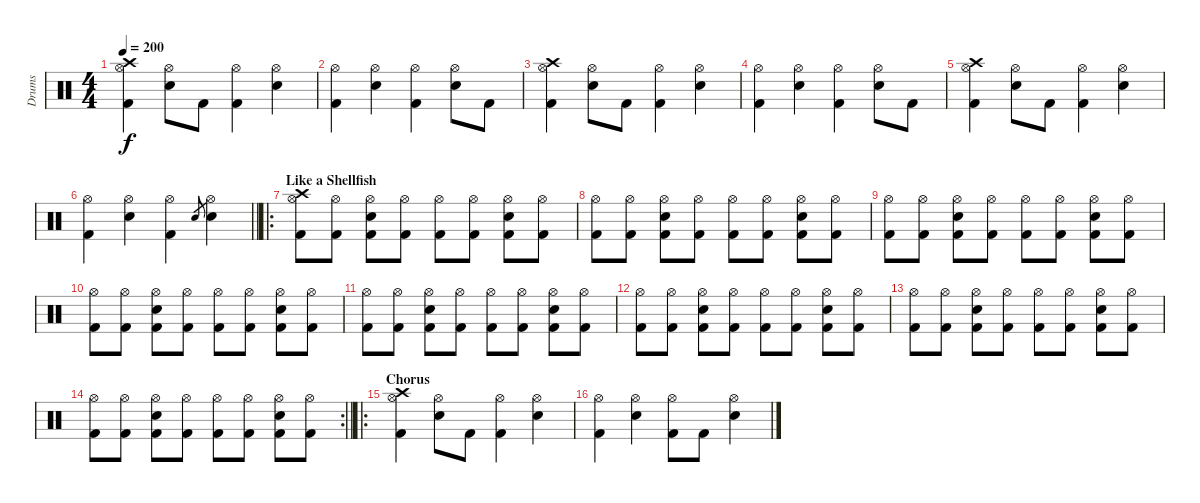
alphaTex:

\track ("Drums" "Drums") {instrument percussion}
\staff {score}
\articulation defaults
\ts (4 4)
\tempo 200
\clef neutral
\ks c
("Crash high (hit)" "Hi-Hat (open)" "Kick (hit) 2").4{dy f} ("Hi-Hat (open)" "Snare (hit) 2").8 "Kick (hit) 2".8 ("Hi-Hat (open)" "Kick (hit) 2").4 ("Hi-Hat (open)" "Snare (hit) 2").4 |
("Hi-Hat (open)" "Kick (hit) 2").4 ("Hi-Hat (open)" "Snare (hit) 2").4 ("Hi-Hat (open)" "Kick (hit) 2").4 ("Hi-Hat (open)" "Snare (hit) 2").8 "Kick (hit) 2".8 |
("Crash high (hit)" "Hi-Hat (open)" "Kick (hit) 2").4 ("Hi-Hat (open)" "Snare (hit) 2").8 "Kick (hit) 2".8 ("Hi-Hat (open)" "Kick (hit) 2").4 ("Hi-Hat (open)" "Snare (hit) 2").4 |
("Hi-Hat (open)" "Kick (hit) 2").4 ("Hi-Hat (open)" "Snare (hit) 2").4 ("Hi-Hat (open)" "Kick (hit) 2").4 ("Hi-Hat (open)" "Snare (hit) 2").8 "Kick (hit) 2".8 |
("Crash high (hit)" "Hi-Hat (open)" "Kick (hit) 2").4 ("Hi-Hat (open)" "Snare (hit) 2").8 "Kick (hit) 2".8 ("Hi-Hat (open)" "Kick (hit) 2").4 ("Hi-Hat (open)" "Snare (hit) 2").4 |
\barLineRight lightlight
("Hi-Hat (open)" "Kick (hit) 2").4 ("Hi-Hat (open)" "Snare (hit) 2").4 ("Hi-Hat (open)" "Kick (hit) 2").4 "Snare (hit) 2".8{gr} ("Hi-Hat (open)" "Snare (hit) 2").4 |
\ro
\section ("" "Like a Shellfish")
("Crash high (hit)" "Hi-Hat (open)" "Kick (hit) 2").8 ("Hi-Hat (open)" "Kick (hit) 2").8 ("Hi-Hat (open)" "Snare (hit) 2" "Kick (hit) 2").8 ("Hi-Hat (open)" "Kick (hit) 2").8 ("Hi-Hat (open)" "Kick (hit) 2").8 ("Hi-Hat (open)" "Kick (hit) 2").8 ("Hi-Hat (open)" "Snare (hit) 2" "Kick (hit) 2").8 ("Hi-Hat (open)" "Kick (hit) 2").8 |
("Hi-Hat (open)" "Kick (hit) 2").8 ("Hi-Hat (open)" "Kick (hit) 2").8 ("Hi-Hat (open)" "Snare (hit) 2" "Kick (hit) 2").8 ("Hi-Hat (open)" "Kick (hit) 2").8 ("Hi-Hat (open)" "Kick (hit) 2").8 ("Hi-Hat (open)" "Kick (hit) 2").8 ("Hi-Hat (open)" "Snare (hit) 2" "Kick (hit) 2").8 ("Hi-Hat (open)" "Kick (hit) 2").8 |
("Hi-Hat (open)" "Kick (hit) 2").8 ("Hi-Hat (open)" "Kick (hit) 2").8 ("Hi-Hat (open)" "Snare (hit) 2" "Kick (hit) 2").8 ("Hi-Hat (open)" "Kick (hit) 2").8 ("Hi-Hat (open)" "Kick (hit) 2").8 ("Hi-Hat (open)" "Kick (hit) 2").8 ("Hi-Hat (open)" "Snare (hit) 2" "Kick (hit) 2").8 ("Hi-Hat (open)" "Kick (hit) 2").8 |
("Hi-Hat (open)" "Kick (hit) 2").8 ("Hi-Hat (open)" "Kick (hit) 2").8 ("Hi-Hat (open)" "Snare (hit) 2" "Kick (hit) 2").8 ("Hi-Hat (open)" "Kick (hit) 2").8 ("Hi-Hat (open)" "Kick (hit) 2").8 ("Hi-Hat (open)" "Kick (hit) 2").8 ("Hi-Hat (open)" "Snare (hit) 2" "Kick (hit) 2").8 ("Hi-Hat (open)" "Kick (hit) 2").8 |
("Hi-Hat (open)" "Kick (hit) 2").8 ("Hi-Hat (open)" "Kick (hit) 2").8 ("Hi-Hat (open)" "Snare (hit) 2" "Kick (hit) 2").8 ("Hi-Hat (open)" "Kick (hit) 2").8 ("Hi-Hat (open)" "Kick (hit) 2").8 ("Hi-Hat (open)" "Kick (hit) 2").8 ("Hi-Hat (open)" "Snare (hit) 2" "Kick (hit) 2").8 ("Hi-Hat (open)" "Kick (hit) 2").8 |
("Hi-Hat (open)" "Kick (hit) 2").8 ("Hi-Hat (open)" "Kick (hit) 2").8 ("Hi-Hat (open)" "Snare (hit) 2" "Kick (hit) 2").8 ("Hi-Hat (open)" "Kick (hit) 2").8 ("Hi-Hat (open)" "Kick (hit) 2").8 ("Hi-Hat (open)" "Kick (hit) 2").8 ("Hi-Hat (open)" "Snare (hit) 2" "Kick (hit) 2").8 ("Hi-Hat (open)" "Kick (hit) 2").8 |
("Hi-Hat (open)" "Kick (hit) 2").8 ("Hi-Hat (open)" "Kick (hit) 2").8 ("Hi-Hat (open)" "Snare (hit) 2" "Kick (hit) 2").8 ("Hi-Hat (open)" "Kick (hit) 2").8 ("Hi-Hat (open)" "Kick (hit) 2").8 ("Hi-Hat (open)" "Kick (hit) 2").8 ("Hi-Hat (open)" "Snare (hit) 2" "Kick (hit) 2").8 ("Hi-Hat (open)" "Kick (hit) 2").8 |
\rc 2
\barLineRight lightlight
("Hi-Hat (open)" "Kick (hit) 2").8 ("Hi-Hat (open)" "Kick (hit) 2").8 ("Hi-Hat (open)" "Snare (hit) 2" "Kick (hit) 2").8 ("Hi-Hat (open)" "Kick (hit) 2").8 ("Hi-Hat (open)" "Kick (hit) 2").8 ("Hi-Hat (open)" "Kick (hit) 2").8 ("Hi-Hat (open)" "Snare (hit) 2" "Kick (hit) 2").8 ("Hi-Hat (open)" "Kick (hit) 2").8 |
\ro
\section ("" "Chorus")
("Crash high (hit)" "Hi-Hat (open)" "Kick (hit) 2").4 ("Hi-Hat (open)" "Snare (hit) 2").8 "Kick (hit) 2".8 ("Hi-Hat (open)" "Kick (hit) 2").4 ("Hi-Hat (open)" "Snare (hit) 2").4 |
("Hi-Hat (open)" "Kick (hit) 2").4 ("Hi-Hat (open)" "Snare (hit) 2").4 ("Hi-Hat (open)" "Kick (hit) 2").8 "Kick (hit) 2".8 ("Hi-Hat (open)" "Snare (hit) 2").4
